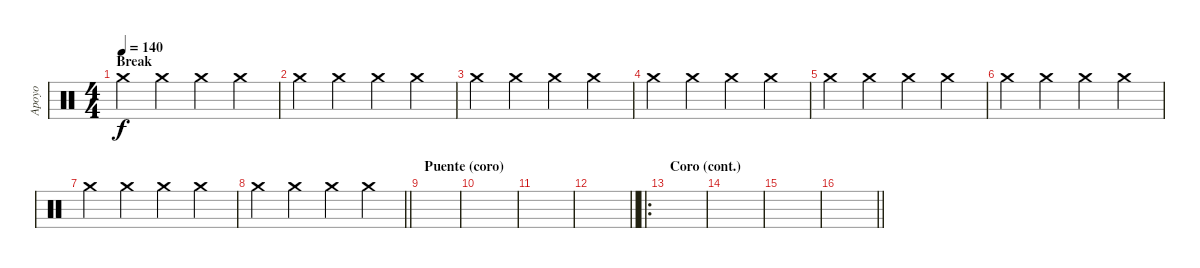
\track ("Apoyo" "Apoyo") {instrument percussion}
\staff {score}
\articulation defaults
\ts (4 4)
\section ("" "Break")
\tempo 140
\clef neutral
\ks c "Crash medium (hit)".4{dy f} "Crash medium (hit)".4 "Crash medium (hit)".4 "Crash medium (hit)".4
|
"Crash medium (hit)".4 "Crash medium (hit)".4 "Crash medium (hit)".4 "Crash medium (hit)".4 |
"Crash medium (hit)".4 "Crash medium (hit)".4 "Crash medium (hit)".4 "Crash medium (hit)".4 |
"Crash medium (hit)".4 "Crash medium (hit)".4 "Crash medium (hit)".4 "Crash medium (hit)".4 |
"Crash medium (hit)".4 "Crash medium (hit)".4 "Crash medium (hit)".4 "Crash medium (hit)".4 |
"Crash medium (hit)".4 "Crash medium (hit)".4 "Crash medium (hit)".4 "Crash medium (hit)".4 |
"Crash medium (hit)".4 "Crash medium (hit)".4 "Crash medium (hit)".4 "Crash medium (hit)".4 |
\barLineRight lightlight "Crash medium (hit)".4 "Crash medium (hit)".4 "Crash medium (hit)".4 "Crash medium (hit)".4
|
\section ("" "Puente (coro)")
|
|
|
\barLineRight lightlight
|
\ro
\section ("" "Coro (cont.)")
|
|
|
\barLineRight lightlight
